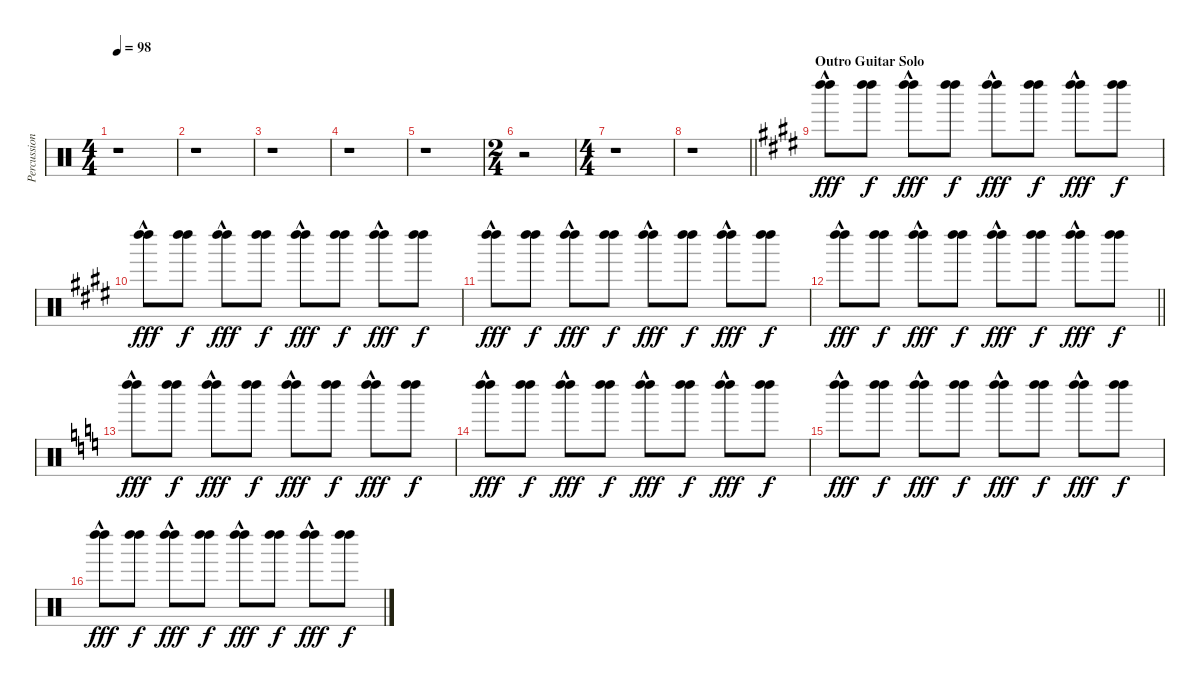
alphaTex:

\track ("Percussion -- Steven Tyler" "Percussion") {instrument percussion}
\staff {score}
\articulation defaults
\ts (4 4)
\tempo 98
\clef neutral
\ks c
r.1{dy fff} |
r.1 |
r.1 |
r.1 |
r.1 |
\ts (2 4)
r.2 |
\ts (4 4)
r.1 |
\barLineRight lightlight
r.1 |
\section ("" "Outro Guitar Solo")
\ks e
("Left Maraca (hit)"{hac} "Left Maraca (hit)"{hac}).8 ("Left Maraca (hit)" "Left Maraca (hit)").8{dy f} ("Left Maraca (hit)"{hac} "Left Maraca (hit)"{hac}).8{dy fff} ("Left Maraca (hit)" "Left Maraca (hit)").8{dy f} ("Left Maraca (hit)"{hac} "Left Maraca (hit)"{hac}).8{dy fff} ("Left Maraca (hit)" "Left Maraca (hit)").8{dy f} ("Left Maraca (hit)"{hac} "Left Maraca (hit)"{hac}).8{dy fff} ("Left Maraca (hit)" "Left Maraca (hit)").8{dy f} |
\ks c#minor
("Left Maraca (hit)"{hac} "Left Maraca (hit)"{hac}).8{dy fff} ("Left Maraca (hit)" "Left Maraca (hit)").8{dy f} ("Left Maraca (hit)"{hac} "Left Maraca (hit)"{hac}).8{dy fff} ("Left Maraca (hit)" "Left Maraca (hit)").8{dy f} ("Left Maraca (hit)"{hac} "Left Maraca (hit)"{hac}).8{dy fff} ("Left Maraca (hit)" "Left Maraca (hit)").8{dy f} ("Left Maraca (hit)"{hac} "Left Maraca (hit)"{hac}).8{dy fff} ("Left Maraca (hit)" "Left Maraca (hit)").8{dy f} |
("Left Maraca (hit)"{hac} "Left Maraca (hit)"{hac}).8{dy fff} ("Left Maraca (hit)" "Left Maraca (hit)").8{dy f} ("Left Maraca (hit)"{hac} "Left Maraca (hit)"{hac}).8{dy fff} ("Left Maraca (hit)" "Left Maraca (hit)").8{dy f} ("Left Maraca (hit)"{hac} "Left Maraca (hit)"{hac}).8{dy fff} ("Left Maraca (hit)" "Left Maraca (hit)").8{dy f} ("Left Maraca (hit)"{hac} "Left Maraca (hit)"{hac}).8{dy fff} ("Left Maraca (hit)" "Left Maraca (hit)").8{dy f} |
\barLineRight lightlight
("Left Maraca (hit)"{hac} "Left Maraca (hit)"{hac}).8{dy fff} ("Left Maraca (hit)" "Left Maraca (hit)").8{dy f} ("Left Maraca (hit)"{hac} "Left Maraca (hit)"{hac}).8{dy fff} ("Left Maraca (hit)" "Left Maraca (hit)").8{dy f} ("Left Maraca (hit)"{hac} "Left Maraca (hit)"{hac}).8{dy fff} ("Left Maraca (hit)" "Left Maraca (hit)").8{dy f} ("Left Maraca (hit)"{hac} "Left Maraca (hit)"{hac}).8{dy fff} ("Left Maraca (hit)" "Left Maraca (hit)").8{dy f} |
\ks c
("Left Maraca (hit)"{hac} "Left Maraca (hit)"{hac}).8{dy fff} ("Left Maraca (hit)" "Left Maraca (hit)").8{dy f} ("Left Maraca (hit)"{hac} "Left Maraca (hit)"{hac}).8{dy fff} ("Left Maraca (hit)" "Left Maraca (hit)").8{dy f} ("Left Maraca (hit)"{hac} "Left Maraca (hit)"{hac}).8{dy fff} ("Left Maraca (hit)" "Left Maraca (hit)").8{dy f} ("Left Maraca (hit)"{hac} "Left Maraca (hit)"{hac}).8{dy fff} ("Left Maraca (hit)" "Left Maraca (hit)").8{dy f} |
("Left Maraca (hit)"{hac} "Left Maraca (hit)"{hac}).8{dy fff} ("Left Maraca (hit)" "Left Maraca (hit)").8{dy f} ("Left Maraca (hit)"{hac} "Left Maraca (hit)"{hac}).8{dy fff} ("Left Maraca (hit)" "Left Maraca (hit)").8{dy f} ("Left Maraca (hit)"{hac} "Left Maraca (hit)"{hac}).8{dy fff} ("Left Maraca (hit)" "Left Maraca (hit)").8{dy f} ("Left Maraca (hit)"{hac} "Left Maraca (hit)"{hac}).8{dy fff} ("Left Maraca (hit)" "Left Maraca (hit)").8{dy f} |
("Left Maraca (hit)"{hac} "Left Maraca (hit)"{hac}).8{dy fff} ("Left Maraca (hit)" "Left Maraca (hit)").8{dy f} ("Left Maraca (hit)"{hac} "Left Maraca (hit)"{hac}).8{dy fff} ("Left Maraca (hit)" "Left Maraca (hit)").8{dy f} ("Left Maraca (hit)"{hac} "Left Maraca (hit)"{hac}).8{dy fff} ("Left Maraca (hit)" "Left Maraca (hit)").8{dy f} ("Left Maraca (hit)"{hac} "Left Maraca (hit)"{hac}).8{dy fff} ("Left Maraca (hit)" "Left Maraca (hit)").8{dy f} |
("Left Maraca (hit)"{hac} "Left Maraca (hit)"{hac}).8{dy fff} ("Left Maraca (hit)" "Left Maraca (hit)").8{dy f} ("Left Maraca (hit)"{hac} "Left Maraca (hit)"{hac}).8{dy fff} ("Left Maraca (hit)" "Left Maraca (hit)").8{dy f} ("Left Maraca (hit)"{hac} "Left Maraca (hit)"{hac}).8{dy fff} ("Left Maraca (hit)" "Left Maraca (hit)").8{dy f} ("Left Maraca (hit)"{hac} "Left Maraca (hit)"{hac}).8{dy fff} ("Left Maraca (hit)" "Left Maraca (hit)").8{dy f}
